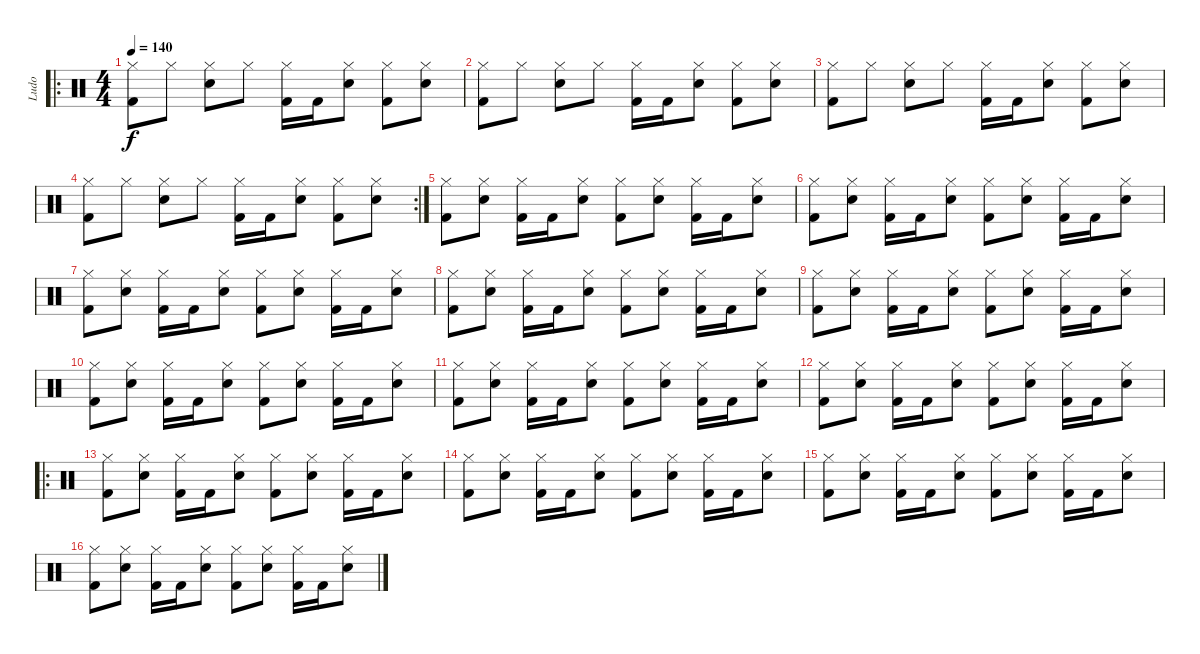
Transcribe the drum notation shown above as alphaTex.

\track ("Ludo" "Ludo") {instrument percussion}
\staff {score}
\articulation defaults
\ro
\ts (4 4)
\tempo 140
\clef neutral
\ks c
("Hi-Hat (closed)" "Kick (hit) 2").8{dy f} "Hi-Hat (closed)".8 ("Hi-Hat (closed)" "Electric Snare (hit)").8 "Hi-Hat (closed)".8 ("Hi-Hat (closed)" "Kick (hit) 2").16 "Kick (hit) 2".16 ("Hi-Hat (closed)" "Electric Snare (hit)").8 ("Hi-Hat (closed)" "Kick (hit) 2").8 ("Hi-Hat (closed)" "Electric Snare (hit)").8 |
("Hi-Hat (closed)" "Kick (hit) 2").8 "Hi-Hat (closed)".8 ("Hi-Hat (closed)" "Electric Snare (hit)").8 "Hi-Hat (closed)".8 ("Hi-Hat (closed)" "Kick (hit) 2").16 "Kick (hit) 2".16 ("Hi-Hat (closed)" "Electric Snare (hit)").8 ("Hi-Hat (closed)" "Kick (hit) 2").8 ("Hi-Hat (closed)" "Electric Snare (hit)").8 |
("Hi-Hat (closed)" "Kick (hit) 2").8 "Hi-Hat (closed)".8 ("Hi-Hat (closed)" "Electric Snare (hit)").8 "Hi-Hat (closed)".8 ("Hi-Hat (closed)" "Kick (hit) 2").16 "Kick (hit) 2".16 ("Hi-Hat (closed)" "Electric Snare (hit)").8 ("Hi-Hat (closed)" "Kick (hit) 2").8 ("Hi-Hat (closed)" "Electric Snare (hit)").8 |
\rc 2
("Hi-Hat (closed)" "Kick (hit) 2").8 "Hi-Hat (closed)".8 ("Hi-Hat (closed)" "Electric Snare (hit)").8 "Hi-Hat (closed)".8 ("Hi-Hat (closed)" "Kick (hit) 2").16 "Kick (hit) 2".16 ("Hi-Hat (closed)" "Electric Snare (hit)").8 ("Hi-Hat (closed)" "Kick (hit) 2").8 ("Hi-Hat (closed)" "Electric Snare (hit)").8 |
("Hi-Hat (closed)" "Kick (hit) 2").8 ("Hi-Hat (closed)" "Electric Snare (hit)").8 ("Hi-Hat (closed)" "Kick (hit) 2").16 "Kick (hit) 2".16 ("Hi-Hat (closed)" "Electric Snare (hit)").8 ("Hi-Hat (closed)" "Kick (hit) 2").8 ("Hi-Hat (closed)" "Electric Snare (hit)").8 ("Hi-Hat (closed)" "Kick (hit) 2").16 "Kick (hit) 2".16 ("Hi-Hat (closed)" "Electric Snare (hit)").8 |
("Hi-Hat (closed)" "Kick (hit) 2").8 ("Hi-Hat (closed)" "Electric Snare (hit)").8 ("Hi-Hat (closed)" "Kick (hit) 2").16 "Kick (hit) 2".16 ("Hi-Hat (closed)" "Electric Snare (hit)").8 ("Hi-Hat (closed)" "Kick (hit) 2").8 ("Hi-Hat (closed)" "Electric Snare (hit)").8 ("Hi-Hat (closed)" "Kick (hit) 2").16 "Kick (hit) 2".16 ("Hi-Hat (closed)" "Electric Snare (hit)").8 |
("Hi-Hat (closed)" "Kick (hit) 2").8 ("Hi-Hat (closed)" "Electric Snare (hit)").8 ("Hi-Hat (closed)" "Kick (hit) 2").16 "Kick (hit) 2".16 ("Hi-Hat (closed)" "Electric Snare (hit)").8 ("Hi-Hat (closed)" "Kick (hit) 2").8 ("Hi-Hat (closed)" "Electric Snare (hit)").8 ("Hi-Hat (closed)" "Kick (hit) 2").16 "Kick (hit) 2".16 ("Hi-Hat (closed)" "Electric Snare (hit)").8 |
("Hi-Hat (closed)" "Kick (hit) 2").8 ("Hi-Hat (closed)" "Electric Snare (hit)").8 ("Hi-Hat (closed)" "Kick (hit) 2").16 "Kick (hit) 2".16 ("Hi-Hat (closed)" "Electric Snare (hit)").8 ("Hi-Hat (closed)" "Kick (hit) 2").8 ("Hi-Hat (closed)" "Electric Snare (hit)").8 ("Hi-Hat (closed)" "Kick (hit) 2").16 "Kick (hit) 2".16 ("Hi-Hat (closed)" "Electric Snare (hit)").8 |
("Hi-Hat (closed)" "Kick (hit) 2").8 ("Hi-Hat (closed)" "Electric Snare (hit)").8 ("Hi-Hat (closed)" "Kick (hit) 2").16 "Kick (hit) 2".16 ("Hi-Hat (closed)" "Electric Snare (hit)").8 ("Hi-Hat (closed)" "Kick (hit) 2").8 ("Hi-Hat (closed)" "Electric Snare (hit)").8 ("Hi-Hat (closed)" "Kick (hit) 2").16 "Kick (hit) 2".16 ("Hi-Hat (closed)" "Electric Snare (hit)").8 |
("Hi-Hat (closed)" "Kick (hit) 2").8 ("Hi-Hat (closed)" "Electric Snare (hit)").8 ("Hi-Hat (closed)" "Kick (hit) 2").16 "Kick (hit) 2".16 ("Hi-Hat (closed)" "Electric Snare (hit)").8 ("Hi-Hat (closed)" "Kick (hit) 2").8 ("Hi-Hat (closed)" "Electric Snare (hit)").8 ("Hi-Hat (closed)" "Kick (hit) 2").16 "Kick (hit) 2".16 ("Hi-Hat (closed)" "Electric Snare (hit)").8 |
("Hi-Hat (closed)" "Kick (hit) 2").8 ("Hi-Hat (closed)" "Electric Snare (hit)").8 ("Hi-Hat (closed)" "Kick (hit) 2").16 "Kick (hit) 2".16 ("Hi-Hat (closed)" "Electric Snare (hit)").8 ("Hi-Hat (closed)" "Kick (hit) 2").8 ("Hi-Hat (closed)" "Electric Snare (hit)").8 ("Hi-Hat (closed)" "Kick (hit) 2").16 "Kick (hit) 2".16 ("Hi-Hat (closed)" "Electric Snare (hit)").8 |
("Hi-Hat (closed)" "Kick (hit) 2").8 ("Hi-Hat (closed)" "Electric Snare (hit)").8 ("Hi-Hat (closed)" "Kick (hit) 2").16 "Kick (hit) 2".16 ("Hi-Hat (closed)" "Electric Snare (hit)").8 ("Hi-Hat (closed)" "Kick (hit) 2").8 ("Hi-Hat (closed)" "Electric Snare (hit)").8 ("Hi-Hat (closed)" "Kick (hit) 2").16 "Kick (hit) 2".16 ("Hi-Hat (closed)" "Electric Snare (hit)").8 |
\ro
("Hi-Hat (closed)" "Kick (hit) 2").8 ("Hi-Hat (closed)" "Electric Snare (hit)").8 ("Hi-Hat (closed)" "Kick (hit) 2").16 "Kick (hit) 2".16 ("Hi-Hat (closed)" "Electric Snare (hit)").8 ("Hi-Hat (closed)" "Kick (hit) 2").8 ("Hi-Hat (closed)" "Electric Snare (hit)").8 ("Hi-Hat (closed)" "Kick (hit) 2").16 "Kick (hit) 2".16 ("Hi-Hat (closed)" "Electric Snare (hit)").8 |
("Hi-Hat (closed)" "Kick (hit) 2").8 ("Hi-Hat (closed)" "Electric Snare (hit)").8 ("Hi-Hat (closed)" "Kick (hit) 2").16 "Kick (hit) 2".16 ("Hi-Hat (closed)" "Electric Snare (hit)").8 ("Hi-Hat (closed)" "Kick (hit) 2").8 ("Hi-Hat (closed)" "Electric Snare (hit)").8 ("Hi-Hat (closed)" "Kick (hit) 2").16 "Kick (hit) 2".16 ("Hi-Hat (closed)" "Electric Snare (hit)").8 |
("Hi-Hat (closed)" "Kick (hit) 2").8 ("Hi-Hat (closed)" "Electric Snare (hit)").8 ("Hi-Hat (closed)" "Kick (hit) 2").16 "Kick (hit) 2".16 ("Hi-Hat (closed)" "Electric Snare (hit)").8 ("Hi-Hat (closed)" "Kick (hit) 2").8 ("Hi-Hat (closed)" "Electric Snare (hit)").8 ("Hi-Hat (closed)" "Kick (hit) 2").16 "Kick (hit) 2".16 ("Hi-Hat (closed)" "Electric Snare (hit)").8 |
("Hi-Hat (closed)" "Kick (hit) 2").8 ("Hi-Hat (closed)" "Electric Snare (hit)").8 ("Hi-Hat (closed)" "Kick (hit) 2").16 "Kick (hit) 2".16 ("Hi-Hat (closed)" "Electric Snare (hit)").8 ("Hi-Hat (closed)" "Kick (hit) 2").8 ("Hi-Hat (closed)" "Electric Snare (hit)").8 ("Hi-Hat (closed)" "Kick (hit) 2").16 "Kick (hit) 2".16 ("Hi-Hat (closed)" "Electric Snare (hit)").8
